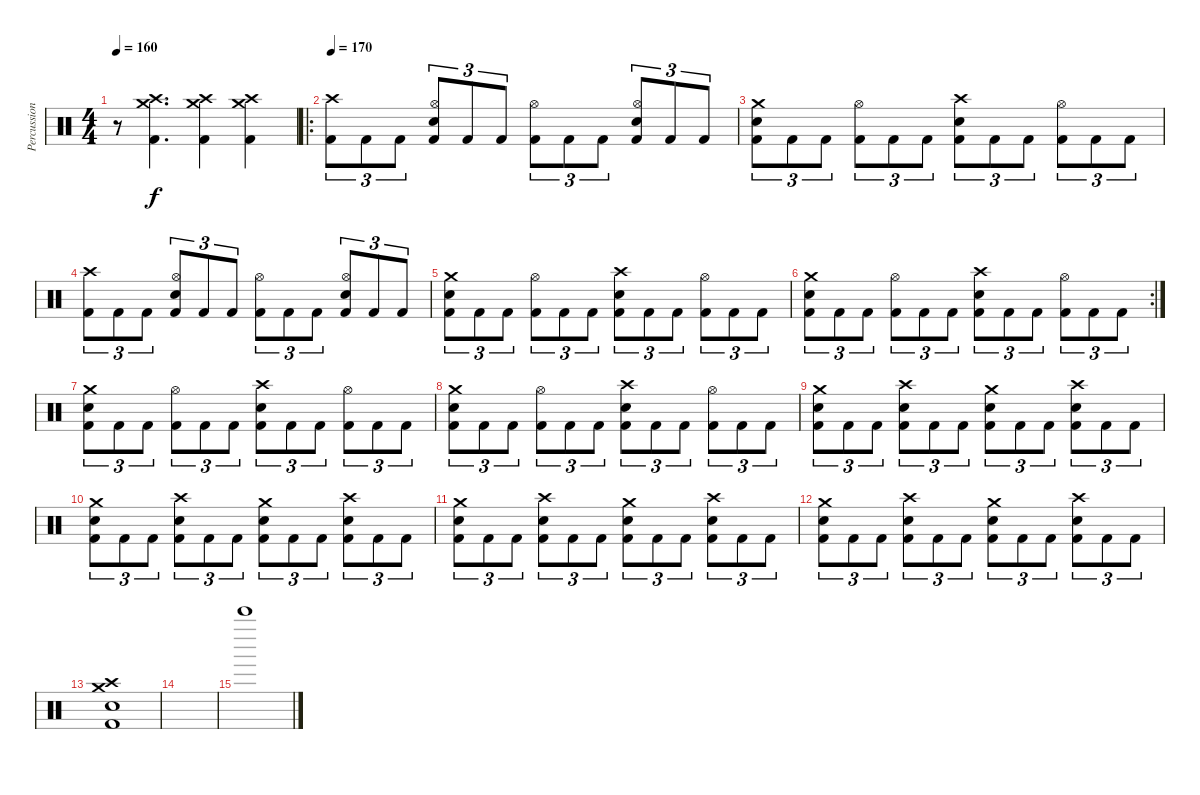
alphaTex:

\track ("Percussion" "Percussion") {instrument percussion}
\staff {score}
\articulation defaults
\ts (4 4)
\tempo 160
\clef neutral
\ks c
r.8{dy f} ("Crash high (hit)" "Crash medium (hit)" "Kick (hit) 2").4{d} ("Crash high (hit)" "Crash medium (hit)" "Kick (hit) 2").4 ("Crash high (hit)" "Crash medium (hit)" "Kick (hit) 2").4 |
\ro
\tempo 170
("Crash high (hit)" "Kick (hit) 2").8{tu (3 2)} "Kick (hit) 2".8{tu (3 2)} "Kick (hit) 2".8{tu (3 2)} ("Hi-Hat (open)" "Snare (hit) 2" "Kick (hit) 2").8{tu (3 2)} "Kick (hit) 2".8{tu (3 2)} "Kick (hit) 2".8{tu (3 2)} ("Hi-Hat (open)" "Kick (hit) 2").8{tu (3 2)} "Kick (hit) 2".8{tu (3 2)} "Kick (hit) 2".8{tu (3 2)} ("Hi-Hat (open)" "Snare (hit) 2" "Kick (hit) 2").8{tu (3 2)} "Kick (hit) 2".8{tu (3 2)} "Kick (hit) 2".8{tu (3 2)} |
("Crash medium (hit)" "Snare (hit) 2" "Kick (hit) 2").8{tu (3 2)} "Kick (hit) 2".8{tu (3 2)} "Kick (hit) 2".8{tu (3 2)} ("Hi-Hat (open)" "Kick (hit) 2").8{tu (3 2)} "Kick (hit) 2".8{tu (3 2)} "Kick (hit) 2".8{tu (3 2)} ("Crash high (hit)" "Snare (hit) 2" "Kick (hit) 2").8{tu (3 2)} "Kick (hit) 2".8{tu (3 2)} "Kick (hit) 2".8{tu (3 2)} ("Hi-Hat (open)" "Kick (hit) 2").8{tu (3 2)} "Kick (hit) 2".8{tu (3 2)} "Kick (hit) 2".8{tu (3 2)} |
("Crash high (hit)" "Kick (hit) 2").8{tu (3 2)} "Kick (hit) 2".8{tu (3 2)} "Kick (hit) 2".8{tu (3 2)} ("Hi-Hat (open)" "Snare (hit) 2" "Kick (hit) 2").8{tu (3 2)} "Kick (hit) 2".8{tu (3 2)} "Kick (hit) 2".8{tu (3 2)} ("Hi-Hat (open)" "Kick (hit) 2").8{tu (3 2)} "Kick (hit) 2".8{tu (3 2)} "Kick (hit) 2".8{tu (3 2)} ("Hi-Hat (open)" "Snare (hit) 2" "Kick (hit) 2").8{tu (3 2)} "Kick (hit) 2".8{tu (3 2)} "Kick (hit) 2".8{tu (3 2)} |
("Crash medium (hit)" "Snare (hit) 2" "Kick (hit) 2").8{tu (3 2)} "Kick (hit) 2".8{tu (3 2)} "Kick (hit) 2".8{tu (3 2)} ("Hi-Hat (open)" "Kick (hit) 2").8{tu (3 2)} "Kick (hit) 2".8{tu (3 2)} "Kick (hit) 2".8{tu (3 2)} ("Crash high (hit)" "Snare (hit) 2" "Kick (hit) 2").8{tu (3 2)} "Kick (hit) 2".8{tu (3 2)} "Kick (hit) 2".8{tu (3 2)} ("Hi-Hat (open)" "Kick (hit) 2").8{tu (3 2)} "Kick (hit) 2".8{tu (3 2)} "Kick (hit) 2".8{tu (3 2)} |
\rc 2
("Crash medium (hit)" "Snare (hit) 2" "Kick (hit) 2").8{tu (3 2)} "Kick (hit) 2".8{tu (3 2)} "Kick (hit) 2".8{tu (3 2)} ("Hi-Hat (open)" "Kick (hit) 2").8{tu (3 2)} "Kick (hit) 2".8{tu (3 2)} "Kick (hit) 2".8{tu (3 2)} ("Crash high (hit)" "Snare (hit) 2" "Kick (hit) 2").8{tu (3 2)} "Kick (hit) 2".8{tu (3 2)} "Kick (hit) 2".8{tu (3 2)} ("Hi-Hat (open)" "Kick (hit) 2").8{tu (3 2)} "Kick (hit) 2".8{tu (3 2)} "Kick (hit) 2".8{tu (3 2)} |
("Crash medium (hit)" "Snare (hit) 2" "Kick (hit) 2").8{tu (3 2)} "Kick (hit) 2".8{tu (3 2)} "Kick (hit) 2".8{tu (3 2)} ("Hi-Hat (open)" "Kick (hit) 2").8{tu (3 2)} "Kick (hit) 2".8{tu (3 2)} "Kick (hit) 2".8{tu (3 2)} ("Crash high (hit)" "Snare (hit) 2" "Kick (hit) 2").8{tu (3 2)} "Kick (hit) 2".8{tu (3 2)} "Kick (hit) 2".8{tu (3 2)} ("Hi-Hat (open)" "Kick (hit) 2").8{tu (3 2)} "Kick (hit) 2".8{tu (3 2)} "Kick (hit) 2".8{tu (3 2)} |
("Crash medium (hit)" "Snare (hit) 2" "Kick (hit) 2").8{tu (3 2)} "Kick (hit) 2".8{tu (3 2)} "Kick (hit) 2".8{tu (3 2)} ("Hi-Hat (open)" "Kick (hit) 2").8{tu (3 2)} "Kick (hit) 2".8{tu (3 2)} "Kick (hit) 2".8{tu (3 2)} ("Crash high (hit)" "Snare (hit) 2" "Kick (hit) 2").8{tu (3 2)} "Kick (hit) 2".8{tu (3 2)} "Kick (hit) 2".8{tu (3 2)} ("Hi-Hat (open)" "Kick (hit) 2").8{tu (3 2)} "Kick (hit) 2".8{tu (3 2)} "Kick (hit) 2".8{tu (3 2)} |
("Crash medium (hit)" "Snare (hit) 2" "Kick (hit) 2").8{tu (3 2)} "Kick (hit) 2".8{tu (3 2)} "Kick (hit) 2".8{tu (3 2)} ("Crash high (hit)" "Snare (hit) 2" "Kick (hit) 2").8{tu (3 2)} "Kick (hit) 2".8{tu (3 2)} "Kick (hit) 2".8{tu (3 2)} ("Crash medium (hit)" "Snare (hit) 2" "Kick (hit) 2").8{tu (3 2)} "Kick (hit) 2".8{tu (3 2)} "Kick (hit) 2".8{tu (3 2)} ("Crash high (hit)" "Snare (hit) 2" "Kick (hit) 2").8{tu (3 2)} "Kick (hit) 2".8{tu (3 2)} "Kick (hit) 2".8{tu (3 2)} |
("Crash medium (hit)" "Snare (hit) 2" "Kick (hit) 2").8{tu (3 2)} "Kick (hit) 2".8{tu (3 2)} "Kick (hit) 2".8{tu (3 2)} ("Crash high (hit)" "Snare (hit) 2" "Kick (hit) 2").8{tu (3 2)} "Kick (hit) 2".8{tu (3 2)} "Kick (hit) 2".8{tu (3 2)} ("Crash medium (hit)" "Snare (hit) 2" "Kick (hit) 2").8{tu (3 2)} "Kick (hit) 2".8{tu (3 2)} "Kick (hit) 2".8{tu (3 2)} ("Crash high (hit)" "Snare (hit) 2" "Kick (hit) 2").8{tu (3 2)} "Kick (hit) 2".8{tu (3 2)} "Kick (hit) 2".8{tu (3 2)} |
("Crash medium (hit)" "Snare (hit) 2" "Kick (hit) 2").8{tu (3 2)} "Kick (hit) 2".8{tu (3 2)} "Kick (hit) 2".8{tu (3 2)} ("Crash high (hit)" "Snare (hit) 2" "Kick (hit) 2").8{tu (3 2)} "Kick (hit) 2".8{tu (3 2)} "Kick (hit) 2".8{tu (3 2)} ("Crash medium (hit)" "Snare (hit) 2" "Kick (hit) 2").8{tu (3 2)} "Kick (hit) 2".8{tu (3 2)} "Kick (hit) 2".8{tu (3 2)} ("Crash high (hit)" "Snare (hit) 2" "Kick (hit) 2").8{tu (3 2)} "Kick (hit) 2".8{tu (3 2)} "Kick (hit) 2".8{tu (3 2)} |
("Crash medium (hit)" "Snare (hit) 2" "Kick (hit) 2").8{tu (3 2)} "Kick (hit) 2".8{tu (3 2)} "Kick (hit) 2".8{tu (3 2)} ("Crash high (hit)" "Snare (hit) 2" "Kick (hit) 2").8{tu (3 2)} "Kick (hit) 2".8{tu (3 2)} "Kick (hit) 2".8{tu (3 2)} ("Crash medium (hit)" "Snare (hit) 2" "Kick (hit) 2").8{tu (3 2)} "Kick (hit) 2".8{tu (3 2)} "Kick (hit) 2".8{tu (3 2)} ("Crash high (hit)" "Snare (hit) 2" "Kick (hit) 2").8{tu (3 2)} "Kick (hit) 2".8{tu (3 2)} "Kick (hit) 2".8{tu (3 2)} |
("Crash high (hit)" "Crash medium (hit)" "Snare (hit) 2" "Kick (hit) 2").1 |
|
"Bell Tree (hit)".1
